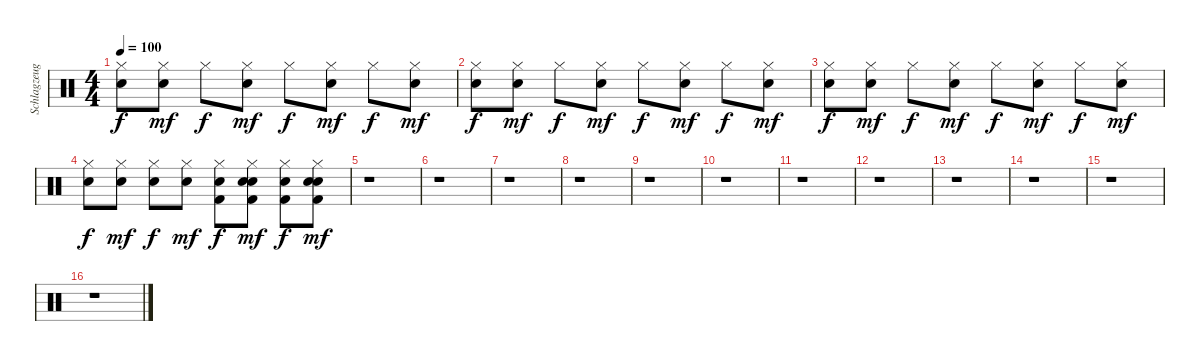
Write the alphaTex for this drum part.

\track ("Schlagzeug (Intro)" "Schlagzeug") {instrument percussion}
\staff {score}
\articulation defaults
\ts (4 4)
\tempo 100
\clef neutral
\ks c
("Hi-Hat (closed)" "Snare (hit) 2").8{dy f} ("Hand Clap (hit)" "Hi-Hat (closed)").8{dy mf} "Hi-Hat (closed)".8{dy f} ("Hand Clap (hit)" "Hi-Hat (closed)").8{dy mf} "Hi-Hat (closed)".8{dy f} ("Hand Clap (hit)" "Hi-Hat (closed)").8{dy mf} "Hi-Hat (closed)".8{dy f} ("Hand Clap (hit)" "Hi-Hat (closed)").8{dy mf} |
("Hi-Hat (closed)" "Snare (hit) 2").8{dy f} ("Hand Clap (hit)" "Hi-Hat (closed)").8{dy mf} "Hi-Hat (closed)".8{dy f} ("Hand Clap (hit)" "Hi-Hat (closed)").8{dy mf} "Hi-Hat (closed)".8{dy f} ("Hand Clap (hit)" "Hi-Hat (closed)").8{dy mf} "Hi-Hat (closed)".8{dy f} ("Hand Clap (hit)" "Hi-Hat (closed)").8{dy mf} |
("Hi-Hat (closed)" "Snare (hit) 2").8{dy f} ("Hand Clap (hit)" "Hi-Hat (closed)").8{dy mf} "Hi-Hat (closed)".8{dy f} ("Hand Clap (hit)" "Hi-Hat (closed)").8{dy mf} "Hi-Hat (closed)".8{dy f} ("Hand Clap (hit)" "Hi-Hat (closed)").8{dy mf} "Hi-Hat (closed)".8{dy f} ("Hand Clap (hit)" "Hi-Hat (closed)").8{dy mf} |
("Hi-Hat (closed)" "Snare (hit) 2").8{dy f} ("Hand Clap (hit)" "Hi-Hat (closed)").8{dy mf} ("Hi-Hat (closed)" "Snare (hit) 2").8{dy f} ("Hand Clap (hit)" "Hi-Hat (closed)").8{dy mf} ("Hi-Hat (closed)" "Snare (hit) 2" "Kick (hit) 2").8{dy f} ("Hand Clap (hit)" "Hi-Hat (closed)" "Snare (hit) 2" "Kick (hit) 2").8{dy mf} ("Hi-Hat (closed)" "Snare (hit) 2" "Kick (hit) 2").8{dy f} ("Hand Clap (hit)" "Hi-Hat (closed)" "Snare (hit) 2" "Kick (hit) 2").8{dy mf} |
r.1 |
r.1 |
r.1 |
r.1 |
r.1 |
r.1 |
r.1 |
r.1 |
r.1 |
r.1 |
r.1 |
r.1
